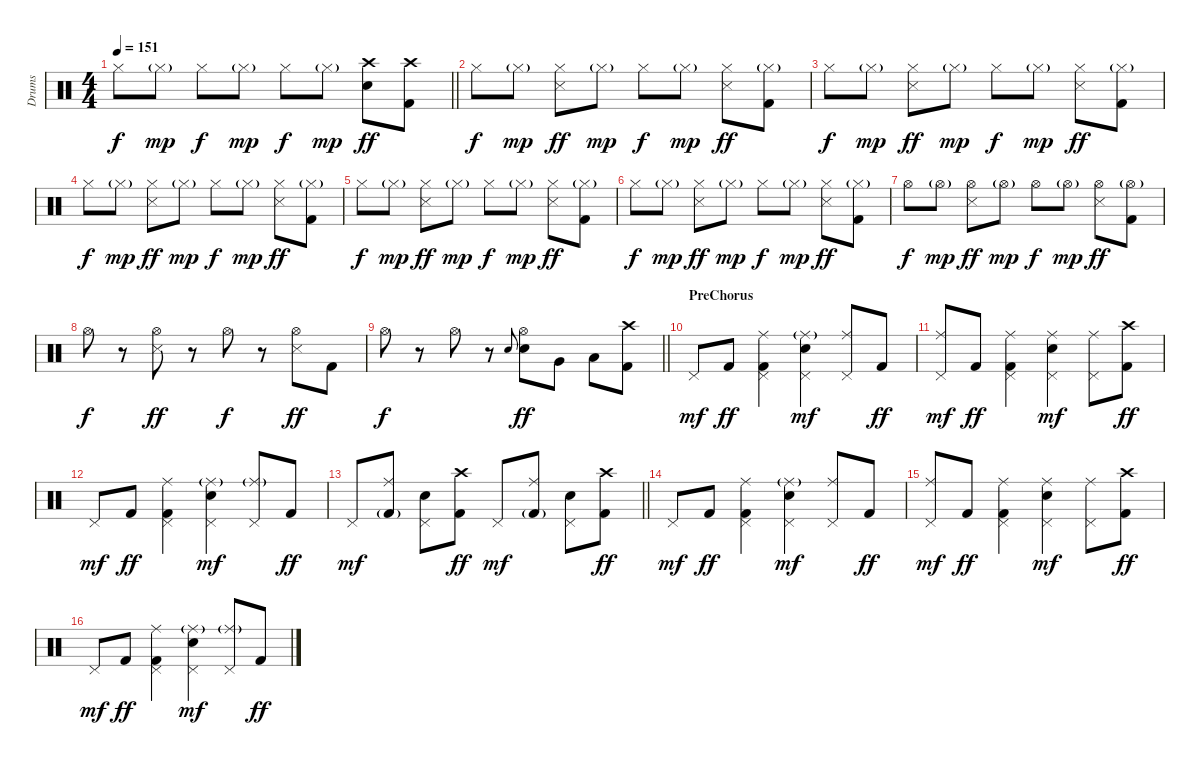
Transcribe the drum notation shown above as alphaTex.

\track ("Drums" "Drums") {instrument percussion}
\staff {score}
\articulation defaults
\ts (4 4)
\tempo 151
\clef neutral
\barLineRight lightlight
\ks c "Hi-Hat (closed)".8{dy f} "Hi-Hat (closed)"{g}.8{dy mp} "Hi-Hat (closed)".8{dy f} "Hi-Hat (closed)"{g}.8{dy mp} "Hi-Hat (closed)".8{dy f} "Hi-Hat (closed)"{g}.8{dy mp}
("Crash high (hit)" "Electric Snare (hit)").8{dy ff} ("Crash high (hit)" "Kick (hit) 2").8 |
"Hi-Hat (closed)".8{dy f} "Hi-Hat (closed)"{g}.8{dy mp} ("Hi-Hat (closed)" "Snare (side stick) 3").8{dy ff} "Hi-Hat (closed)"{g}.8{dy mp} "Hi-Hat (closed)".8{dy f} "Hi-Hat (closed)"{g}.8{dy mp} ("Hi-Hat (closed)" "Snare (side stick) 3").8{dy ff} ("Hi-Hat (closed)"{g} "Kick (hit) 2").8 |
"Hi-Hat (closed)".8{dy f} "Hi-Hat (closed)"{g}.8{dy mp} ("Hi-Hat (closed)" "Snare (side stick) 3").8{dy ff} "Hi-Hat (closed)"{g}.8{dy mp} "Hi-Hat (closed)".8{dy f} "Hi-Hat (closed)"{g}.8{dy mp} ("Hi-Hat (closed)" "Snare (side stick) 3").8{dy ff} ("Hi-Hat (closed)"{g} "Kick (hit) 2").8 |
"Hi-Hat (closed)".8{dy f} "Hi-Hat (closed)"{g}.8{dy mp} ("Hi-Hat (closed)" "Snare (side stick) 3").8{dy ff} "Hi-Hat (closed)"{g}.8{dy mp} "Hi-Hat (closed)".8{dy f} "Hi-Hat (closed)"{g}.8{dy mp} ("Hi-Hat (closed)" "Snare (side stick) 3").8{dy ff} ("Hi-Hat (closed)"{g} "Kick (hit) 2").8 |
"Hi-Hat (closed)".8{dy f} "Hi-Hat (closed)"{g}.8{dy mp} ("Hi-Hat (closed)" "Snare (side stick) 3").8{dy ff} "Hi-Hat (closed)"{g}.8{dy mp} "Hi-Hat (closed)".8{dy f} "Hi-Hat (closed)"{g}.8{dy mp} ("Hi-Hat (closed)" "Snare (side stick) 3").8{dy ff} ("Hi-Hat (closed)"{g} "Kick (hit) 2").8 |
"Hi-Hat (closed)".8{dy f} "Hi-Hat (closed)"{g}.8{dy mp} ("Hi-Hat (closed)" "Snare (side stick) 3").8{dy ff} "Hi-Hat (closed)"{g}.8{dy mp} "Hi-Hat (closed)".8{dy f} "Hi-Hat (closed)"{g}.8{dy mp} ("Hi-Hat (closed)" "Snare (side stick) 3").8{dy ff} ("Hi-Hat (closed)"{g} "Kick (hit) 2").8 |
"Hi-Hat (open)".8{dy f} "Hi-Hat (open)"{g}.8{dy mp} ("Hi-Hat (open)" "Snare (side stick) 3").8{dy ff} "Hi-Hat (open)"{g}.8{dy mp} "Hi-Hat (open)".8{dy f} "Hi-Hat (open)"{g}.8{dy mp} ("Hi-Hat (open)" "Snare (side stick) 3").8{dy ff} ("Hi-Hat (open)"{g} "Kick (hit) 2").8 |
"Hi-Hat (open)".8{dy f} r.8 ("Hi-Hat (open)" "Snare (side stick) 3").8{dy ff} r.8 "Hi-Hat (open)".8{dy f} r.8 ("Hi-Hat (open)" "Snare (side stick) 3").8{dy ff} "Kick (hit) 2".8 |
\barLineRight lightlight "Hi-Hat (open)".8{dy f}
r.8 "Hi-Hat (open)".8 r.8 "Electric Snare (hit)".8{gr onbeat} ("Hi-Hat (open)" "Electric Snare (hit)").8{dy ff} "Very Low Tom (hit)".8 "Low Floor Tom (hit)".8 ("Crash high (hit)" "Kick (hit) 2").8 |
\section ("" "PreChorus")
"Pedal Hi-Hat (hit)".8{dy mf} "Kick (hit) 2".8{dy ff} ("Ride (middle)" "Pedal Hi-Hat (hit)" "Kick (hit) 2").4 ("Ride (middle)"{g} "Electric Snare (hit)" "Pedal Hi-Hat (hit)").4{dy mf} ("Ride (middle)" "Pedal Hi-Hat (hit)").8 "Kick (hit) 2".8{dy ff} |
("Ride (middle)" "Pedal Hi-Hat (hit)").8{dy mf} "Kick (hit) 2".8{dy ff} ("Ride (middle)" "Pedal Hi-Hat (hit)" "Kick (hit) 2").4 ("Ride (middle)" "Electric Snare (hit)" "Pedal Hi-Hat (hit)").4{dy mf} ("Ride (middle)" "Pedal Hi-Hat (hit)").8 ("Crash high (hit)" "Kick (hit) 2").8{dy ff} |
"Pedal Hi-Hat (hit)".8{dy mf} "Kick (hit) 2".8{dy ff} ("Ride (middle)" "Pedal Hi-Hat (hit)" "Kick (hit) 2").4 ("Ride (middle)"{g} "Electric Snare (hit)" "Pedal Hi-Hat (hit)").4{dy mf} ("Ride (middle)"{g} "Pedal Hi-Hat (hit)").8 "Kick (hit) 2".8{dy ff} |
\barLineRight lightlight "Pedal Hi-Hat (hit)".8{dy mf}
("Ride (middle)" "Kick (hit) 2"{g}).8 ("Electric Snare (hit)" "Pedal Hi-Hat (hit)").8 ("Crash high (hit)" "Kick (hit) 2").8{dy ff} "Pedal Hi-Hat (hit)".8{dy mf} ("Ride (middle)" "Kick (hit) 2"{g}).8 ("Electric Snare (hit)" "Pedal Hi-Hat (hit)").8 ("Crash high (hit)" "Kick (hit) 2").8{dy ff} |
"Pedal Hi-Hat (hit)".8{dy mf} "Kick (hit) 2".8{dy ff} ("Ride (middle)" "Pedal Hi-Hat (hit)" "Kick (hit) 2").4 ("Ride (middle)"{g} "Electric Snare (hit)" "Pedal Hi-Hat (hit)").4{dy mf} ("Ride (middle)" "Pedal Hi-Hat (hit)").8 "Kick (hit) 2".8{dy ff} |
("Ride (middle)" "Pedal Hi-Hat (hit)").8{dy mf} "Kick (hit) 2".8{dy ff} ("Ride (middle)" "Pedal Hi-Hat (hit)" "Kick (hit) 2").4 ("Ride (middle)" "Electric Snare (hit)" "Pedal Hi-Hat (hit)").4{dy mf} ("Ride (middle)" "Pedal Hi-Hat (hit)").8 ("Crash high (hit)" "Kick (hit) 2").8{dy ff} |
"Pedal Hi-Hat (hit)".8{dy mf} "Kick (hit) 2".8{dy ff} ("Ride (middle)" "Pedal Hi-Hat (hit)" "Kick (hit) 2").4 ("Ride (middle)"{g} "Electric Snare (hit)" "Pedal Hi-Hat (hit)").4{dy mf} ("Ride (middle)"{g} "Pedal Hi-Hat (hit)").8 "Kick (hit) 2".8{dy ff}
